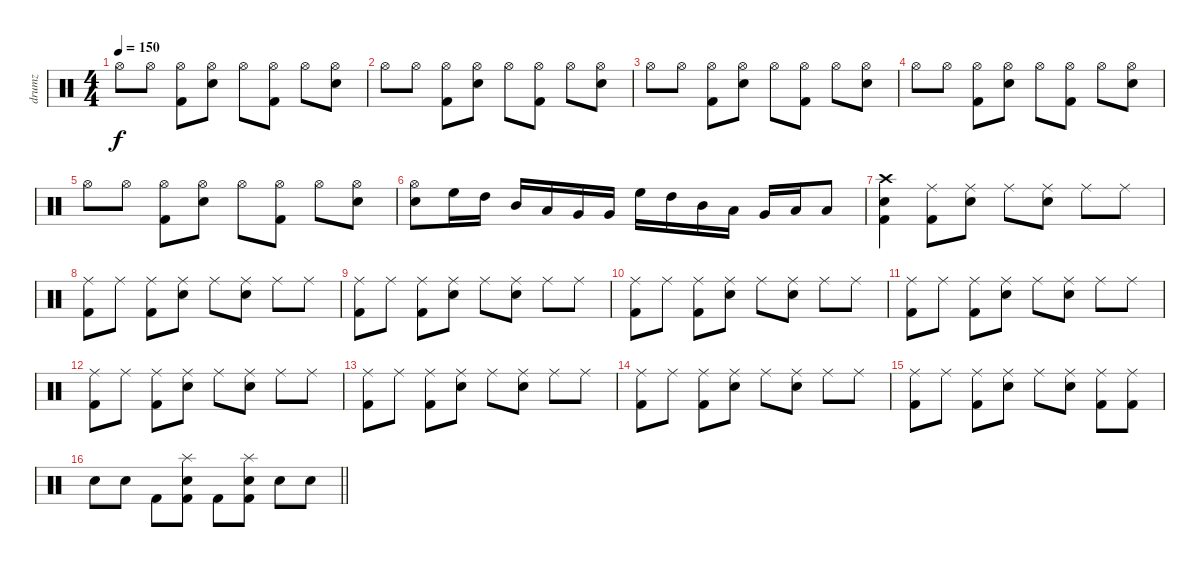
\track ("drumz" "drumz") {instrument percussion}
\staff {score}
\articulation defaults
\ts (4 4)
\tempo 150
\clef neutral
\ks c "Hi-Hat (open)".8{dy f} "Hi-Hat (open)".8
("Hi-Hat (open)" "Kick (hit) 2").8 ("Hi-Hat (open)" "Electric Snare (hit)").8 "Hi-Hat (open)".8 ("Hi-Hat (open)" "Kick (hit) 2").8 "Hi-Hat (open)".8 ("Hi-Hat (open)" "Electric Snare (hit)").8 |
"Hi-Hat (open)".8 "Hi-Hat (open)".8 ("Hi-Hat (open)" "Kick (hit) 2").8 ("Hi-Hat (open)" "Electric Snare (hit)").8 "Hi-Hat (open)".8 ("Hi-Hat (open)" "Kick (hit) 2").8 "Hi-Hat (open)".8 ("Hi-Hat (open)" "Electric Snare (hit)").8 |
"Hi-Hat (open)".8 "Hi-Hat (open)".8 ("Hi-Hat (open)" "Kick (hit) 2").8 ("Hi-Hat (open)" "Electric Snare (hit)").8 "Hi-Hat (open)".8 ("Hi-Hat (open)" "Kick (hit) 2").8 "Hi-Hat (open)".8 ("Hi-Hat (open)" "Electric Snare (hit)").8 |
"Hi-Hat (open)".8 "Hi-Hat (open)".8 ("Hi-Hat (open)" "Kick (hit) 2").8 ("Hi-Hat (open)" "Electric Snare (hit)").8 "Hi-Hat (open)".8 ("Hi-Hat (open)" "Kick (hit) 2").8 "Hi-Hat (open)".8 ("Hi-Hat (open)" "Electric Snare (hit)").8 |
"Hi-Hat (open)".8 "Hi-Hat (open)".8 ("Hi-Hat (open)" "Kick (hit) 2").8 ("Hi-Hat (open)" "Electric Snare (hit)").8 "Hi-Hat (open)".8 ("Hi-Hat (open)" "Kick (hit) 2").8 "Hi-Hat (open)".8 ("Hi-Hat (open)" "Electric Snare (hit)").8 |
("Hi-Hat (open)" "Electric Snare (hit)").8 "High Floor Tom (hit)".16 "High Tom (hit)".16 "Mid Tom (hit)".16 "Low Tom (hit)".16 "Very Low Tom (hit)".16 "Very Low Tom (hit)".16 "High Floor Tom (hit)".16 "High Tom (hit)".16 "Mid Tom (hit)".16 "Low Tom (hit)".16 "Very Low Tom (hit)".16 "Low Floor Tom (hit)".16 "Low Floor Tom (hit)".8 |
("Crash high (hit)" "Electric Snare (hit)" "Kick (hit) 2").4 ("Ride (middle)" "Kick (hit) 2").8 ("Ride (middle)" "Electric Snare (hit)").8 "Ride (middle)".8 ("Ride (middle)" "Electric Snare (hit)").8 "Ride (middle)".8 "Ride (middle)".8 |
("Ride (middle)" "Kick (hit) 2").8 "Ride (middle)".8 ("Ride (middle)" "Kick (hit) 2").8 ("Ride (middle)" "Electric Snare (hit)").8 "Ride (middle)".8 ("Ride (middle)" "Electric Snare (hit)").8 "Ride (middle)".8 "Ride (middle)".8 |
("Ride (middle)" "Kick (hit) 2").8 "Ride (middle)".8 ("Ride (middle)" "Kick (hit) 2").8 ("Ride (middle)" "Electric Snare (hit)").8 "Ride (middle)".8 ("Ride (middle)" "Electric Snare (hit)").8 "Ride (middle)".8 "Ride (middle)".8 |
("Ride (middle)" "Kick (hit) 2").8 "Ride (middle)".8 ("Ride (middle)" "Kick (hit) 2").8 ("Ride (middle)" "Electric Snare (hit)").8 "Ride (middle)".8 ("Ride (middle)" "Electric Snare (hit)").8 "Ride (middle)".8 "Ride (middle)".8 |
("Ride (middle)" "Kick (hit) 2").8 "Ride (middle)".8 ("Ride (middle)" "Kick (hit) 2").8 ("Ride (middle)" "Electric Snare (hit)").8 "Ride (middle)".8 ("Ride (middle)" "Electric Snare (hit)").8 "Ride (middle)".8 "Ride (middle)".8 |
("Ride (middle)" "Kick (hit) 2").8 "Ride (middle)".8 ("Ride (middle)" "Kick (hit) 2").8 ("Ride (middle)" "Electric Snare (hit)").8 "Ride (middle)".8 ("Ride (middle)" "Electric Snare (hit)").8 "Ride (middle)".8 "Ride (middle)".8 |
("Ride (middle)" "Kick (hit) 2").8 "Ride (middle)".8 ("Ride (middle)" "Kick (hit) 2").8 ("Ride (middle)" "Electric Snare (hit)").8 "Ride (middle)".8 ("Ride (middle)" "Electric Snare (hit)").8 "Ride (middle)".8 "Ride (middle)".8 |
("Ride (middle)" "Kick (hit) 2").8 "Ride (middle)".8 ("Ride (middle)" "Kick (hit) 2").8 ("Ride (middle)" "Electric Snare (hit)").8 "Ride (middle)".8 ("Ride (middle)" "Electric Snare (hit)").8 "Ride (middle)".8 "Ride (middle)".8 |
("Ride (middle)" "Kick (hit) 2").8 "Ride (middle)".8 ("Ride (middle)" "Kick (hit) 2").8 ("Ride (middle)" "Electric Snare (hit)").8 "Ride (middle)".8 ("Ride (middle)" "Electric Snare (hit)").8 ("Ride (middle)" "Kick (hit) 2").8 ("Ride (middle)" "Kick (hit) 2").8 |
\barLineRight lightlight "Electric Snare (hit)".8 "Electric Snare (hit)".8 "Kick (hit) 2".8
("Splash (hit)" "Electric Snare (hit)" "Kick (hit) 2").8 "Kick (hit) 2".8 ("Splash (hit)" "Electric Snare (hit)" "Kick (hit) 2").8 "Electric Snare (hit)".8 "Electric Snare (hit)".8
